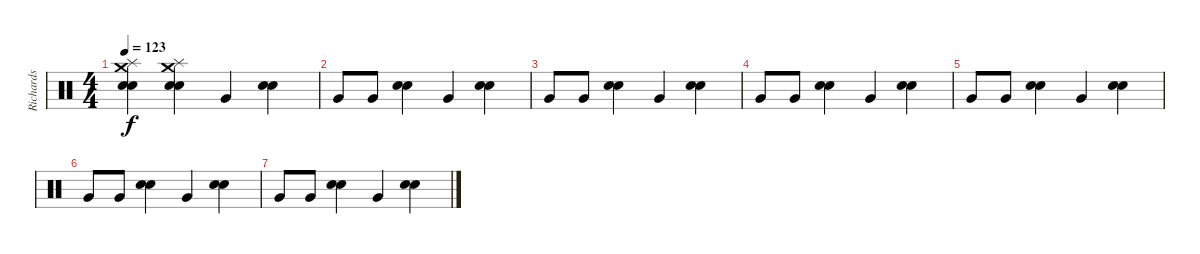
\track ("Richards" "Richards") {instrument percussion}
\staff {score}
\articulation defaults
\ts (4 4)
\tempo 123
\clef neutral
\ks c
("Splash (hit)" "Crash medium (hit)" "Snare (hit) 2" "Electric Snare (hit)").4{dy f} ("Splash (hit)" "Crash medium (hit)" "Snare (hit) 2" "Electric Snare (hit)").4 "Very Low Tom (hit)".4 ("Snare (hit) 2" "Electric Snare (hit)").4 |
"Very Low Tom (hit)".8 "Very Low Tom (hit)".8 ("Snare (hit) 2" "Electric Snare (hit)").4 "Very Low Tom (hit)".4 ("Snare (hit) 2" "Electric Snare (hit)").4 |
"Very Low Tom (hit)".8 "Very Low Tom (hit)".8 ("Snare (hit) 2" "Electric Snare (hit)").4 "Very Low Tom (hit)".4 ("Snare (hit) 2" "Electric Snare (hit)").4 |
"Very Low Tom (hit)".8 "Very Low Tom (hit)".8 ("Snare (hit) 2" "Electric Snare (hit)").4 "Very Low Tom (hit)".4 ("Snare (hit) 2" "Electric Snare (hit)").4 |
"Very Low Tom (hit)".8 "Very Low Tom (hit)".8 ("Snare (hit) 2" "Electric Snare (hit)").4 "Very Low Tom (hit)".4 ("Snare (hit) 2" "Electric Snare (hit)").4 |
"Very Low Tom (hit)".8 "Very Low Tom (hit)".8 ("Snare (hit) 2" "Electric Snare (hit)").4 "Very Low Tom (hit)".4 ("Snare (hit) 2" "Electric Snare (hit)").4 |
"Very Low Tom (hit)".8 "Very Low Tom (hit)".8 ("Snare (hit) 2" "Electric Snare (hit)").4 "Very Low Tom (hit)".4 ("Snare (hit) 2" "Electric Snare (hit)").4
